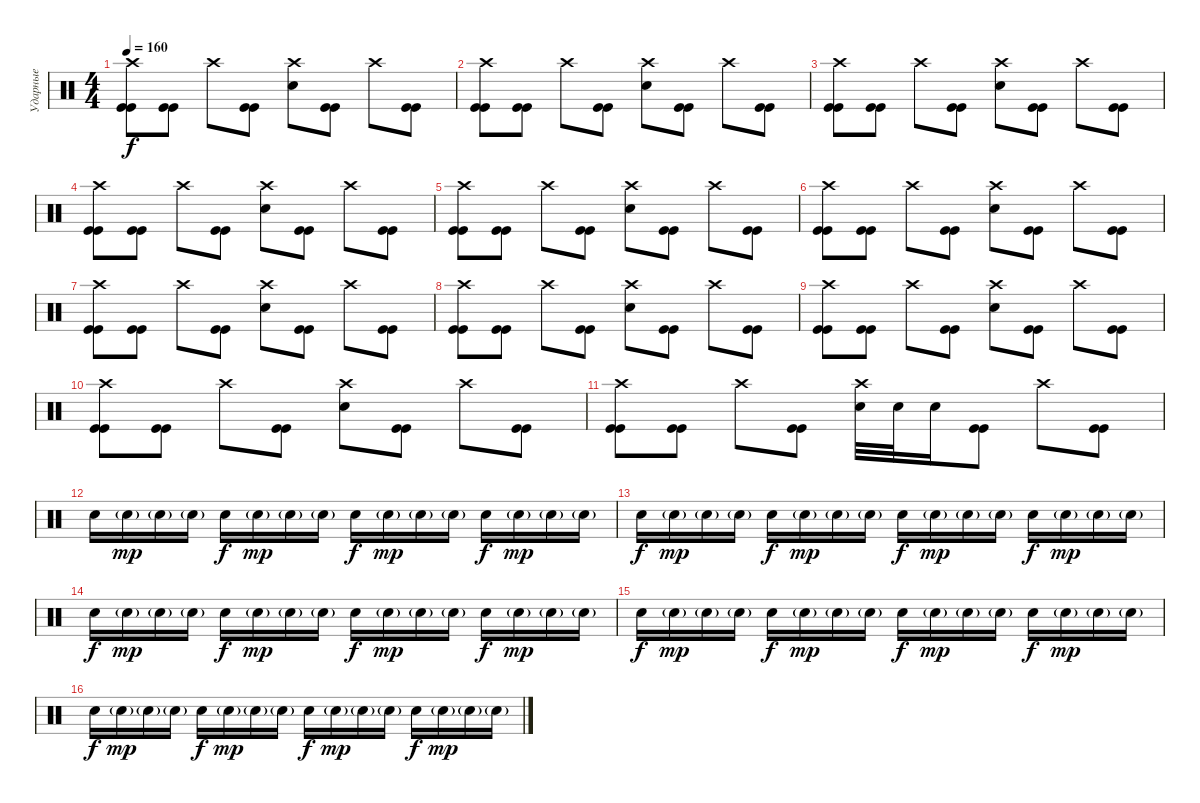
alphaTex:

\track ("Ударные" "Ударные") {instrument percussion}
\staff {score}
\articulation defaults
\ts (4 4)
\tempo 160
\clef neutral
\ks c
("Crash high (hit)" "Kick (hit)" "Kick (hit)").8{dy f} ("Kick (hit)" "Kick (hit)").8 "Crash high (hit)".8 ("Kick (hit)" "Kick (hit)").8 ("Crash high (hit)" "Electric Snare (hit)").8 ("Kick (hit)" "Kick (hit)").8 "Crash high (hit)".8 ("Kick (hit)" "Kick (hit)").8 |
("Crash high (hit)" "Kick (hit)" "Kick (hit)").8 ("Kick (hit)" "Kick (hit)").8 "Crash high (hit)".8 ("Kick (hit)" "Kick (hit)").8 ("Crash high (hit)" "Electric Snare (hit)").8 ("Kick (hit)" "Kick (hit)").8 "Crash high (hit)".8 ("Kick (hit)" "Kick (hit)").8 |
("Crash high (hit)" "Kick (hit)" "Kick (hit)").8 ("Kick (hit)" "Kick (hit)").8 "Crash high (hit)".8 ("Kick (hit)" "Kick (hit)").8 ("Crash high (hit)" "Electric Snare (hit)").8 ("Kick (hit)" "Kick (hit)").8 "Crash high (hit)".8 ("Kick (hit)" "Kick (hit)").8 |
("Crash high (hit)" "Kick (hit)" "Kick (hit)").8 ("Kick (hit)" "Kick (hit)").8 "Crash high (hit)".8 ("Kick (hit)" "Kick (hit)").8 ("Crash high (hit)" "Electric Snare (hit)").8 ("Kick (hit)" "Kick (hit)").8 "Crash high (hit)".8 ("Kick (hit)" "Kick (hit)").8 |
("Crash high (hit)" "Kick (hit)" "Kick (hit)").8 ("Kick (hit)" "Kick (hit)").8 "Crash high (hit)".8 ("Kick (hit)" "Kick (hit)").8 ("Crash high (hit)" "Electric Snare (hit)").8 ("Kick (hit)" "Kick (hit)").8 "Crash high (hit)".8 ("Kick (hit)" "Kick (hit)").8 |
("Crash high (hit)" "Kick (hit)" "Kick (hit)").8 ("Kick (hit)" "Kick (hit)").8 "Crash high (hit)".8 ("Kick (hit)" "Kick (hit)").8 ("Crash high (hit)" "Electric Snare (hit)").8 ("Kick (hit)" "Kick (hit)").8 "Crash high (hit)".8 ("Kick (hit)" "Kick (hit)").8 |
("Crash high (hit)" "Kick (hit)" "Kick (hit)").8 ("Kick (hit)" "Kick (hit)").8 "Crash high (hit)".8 ("Kick (hit)" "Kick (hit)").8 ("Crash high (hit)" "Electric Snare (hit)").8 ("Kick (hit)" "Kick (hit)").8 "Crash high (hit)".8 ("Kick (hit)" "Kick (hit)").8 |
("Crash high (hit)" "Kick (hit)" "Kick (hit)").8 ("Kick (hit)" "Kick (hit)").8 "Crash high (hit)".8 ("Kick (hit)" "Kick (hit)").8 ("Crash high (hit)" "Electric Snare (hit)").8 ("Kick (hit)" "Kick (hit)").8 "Crash high (hit)".8 ("Kick (hit)" "Kick (hit)").8 |
("Crash high (hit)" "Kick (hit)" "Kick (hit)").8 ("Kick (hit)" "Kick (hit)").8 "Crash high (hit)".8 ("Kick (hit)" "Kick (hit)").8 ("Crash high (hit)" "Electric Snare (hit)").8 ("Kick (hit)" "Kick (hit)").8 "Crash high (hit)".8 ("Kick (hit)" "Kick (hit)").8 |
("Crash high (hit)" "Kick (hit)" "Kick (hit)").8 ("Kick (hit)" "Kick (hit)").8 "Crash high (hit)".8 ("Kick (hit)" "Kick (hit)").8 ("Crash high (hit)" "Electric Snare (hit)").8 ("Kick (hit)" "Kick (hit)").8 "Crash high (hit)".8 ("Kick (hit)" "Kick (hit)").8 |
("Crash high (hit)" "Kick (hit)" "Kick (hit)").8 ("Kick (hit)" "Kick (hit)").8 "Crash high (hit)".8 ("Kick (hit)" "Kick (hit)").8 ("Crash high (hit)" "Electric Snare (hit)").32 "Electric Snare (hit)".32 "Electric Snare (hit)".16 ("Kick (hit)" "Kick (hit)").8 "Crash high (hit)".8 ("Kick (hit)" "Kick (hit)").8 |
"Electric Snare (hit)".16{volume 9} "Electric Snare (hit)"{g}.16{dy mp} "Electric Snare (hit)"{g}.16 "Electric Snare (hit)"{g}.16 "Electric Snare (hit)".16{dy f} "Electric Snare (hit)"{g}.16{dy mp} "Electric Snare (hit)"{g}.16 "Electric Snare (hit)"{g}.16 "Electric Snare (hit)".16{dy f} "Electric Snare (hit)"{g}.16{dy mp} "Electric Snare (hit)"{g}.16 "Electric Snare (hit)"{g}.16 "Electric Snare (hit)".16{dy f} "Electric Snare (hit)"{g}.16{dy mp} "Electric Snare (hit)"{g}.16 "Electric Snare (hit)"{g}.16 |
"Electric Snare (hit)".16{dy f} "Electric Snare (hit)"{g}.16{dy mp} "Electric Snare (hit)"{g}.16 "Electric Snare (hit)"{g}.16 "Electric Snare (hit)".16{dy f} "Electric Snare (hit)"{g}.16{dy mp} "Electric Snare (hit)"{g}.16 "Electric Snare (hit)"{g}.16 "Electric Snare (hit)".16{dy f} "Electric Snare (hit)"{g}.16{dy mp} "Electric Snare (hit)"{g}.16 "Electric Snare (hit)"{g}.16 "Electric Snare (hit)".16{dy f} "Electric Snare (hit)"{g}.16{dy mp} "Electric Snare (hit)"{g}.16 "Electric Snare (hit)"{g}.16 |
"Electric Snare (hit)".16{dy f} "Electric Snare (hit)"{g}.16{dy mp} "Electric Snare (hit)"{g}.16 "Electric Snare (hit)"{g}.16 "Electric Snare (hit)".16{dy f} "Electric Snare (hit)"{g}.16{dy mp} "Electric Snare (hit)"{g}.16 "Electric Snare (hit)"{g}.16 "Electric Snare (hit)".16{dy f} "Electric Snare (hit)"{g}.16{dy mp} "Electric Snare (hit)"{g}.16 "Electric Snare (hit)"{g}.16 "Electric Snare (hit)".16{dy f} "Electric Snare (hit)"{g}.16{dy mp} "Electric Snare (hit)"{g}.16 "Electric Snare (hit)"{g}.16 |
"Electric Snare (hit)".16{dy f} "Electric Snare (hit)"{g}.16{dy mp} "Electric Snare (hit)"{g}.16 "Electric Snare (hit)"{g}.16 "Electric Snare (hit)".16{dy f} "Electric Snare (hit)"{g}.16{dy mp} "Electric Snare (hit)"{g}.16 "Electric Snare (hit)"{g}.16 "Electric Snare (hit)".16{dy f} "Electric Snare (hit)"{g}.16{dy mp} "Electric Snare (hit)"{g}.16 "Electric Snare (hit)"{g}.16 "Electric Snare (hit)".16{dy f} "Electric Snare (hit)"{g}.16{dy mp} "Electric Snare (hit)"{g}.16 "Electric Snare (hit)"{g}.16 |
"Electric Snare (hit)".16{dy f volume 16} "Electric Snare (hit)"{g}.16{dy mp} "Electric Snare (hit)"{g}.16 "Electric Snare (hit)"{g}.16 "Electric Snare (hit)".16{dy f} "Electric Snare (hit)"{g}.16{dy mp} "Electric Snare (hit)"{g}.16 "Electric Snare (hit)"{g}.16 "Electric Snare (hit)".16{dy f} "Electric Snare (hit)"{g}.16{dy mp} "Electric Snare (hit)"{g}.16 "Electric Snare (hit)"{g}.16 "Electric Snare (hit)".16{dy f} "Electric Snare (hit)"{g}.16{dy mp} "Electric Snare (hit)"{g}.16 "Electric Snare (hit)"{g}.16
